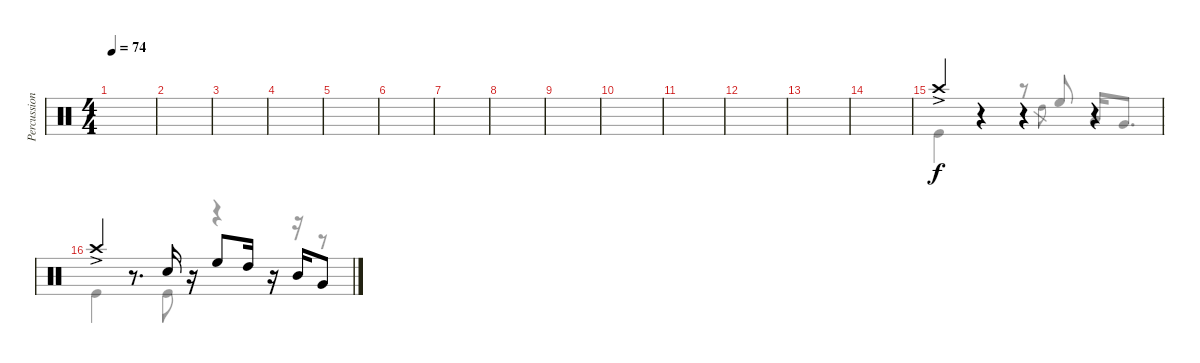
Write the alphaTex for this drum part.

\track ("Percussion" "Percussion") {instrument percussion}
\staff {score}
\articulation defaults
\voice
\ts (4 4)
\tempo 74
\clef neutral
\ks c
|
|
|
|
|
|
|
|
|
|
|
|
|
|
"Crash high (hit)"{ac}.4{beam Up} r.4 r.4 r.4 |
"Crash high (hit)"{ac}.4{beam Up} r.8{d} "Snare (hit) 2".16{dy f beam Up} r.16{beam split} "High Floor Tom (hit)".8{beam Up beam merge} "High Tom (hit)".16{beam Up} r.16{beam split} "Mid Tom (hit)".16{beam Up beam merge} "Very Low Tom (hit)".8{beam Up}
\voice
\clef neutral
\ottava regular
\simile none
\ks c
|
|
|
|
|
|
|
|
|
|
|
|
|
|
"Kick (hit)".4 r.4 r.8 "High Tom (hit)"{h}.8{gr} "High Floor Tom (hit)".8{beam Up} "Low Tom (hit)".16{beam Up} "Very Low Tom (hit)".8{d beam Up} |
"Kick (hit)".4 r.8{d} "Kick (hit)".8 r.4 r.16 r.8
